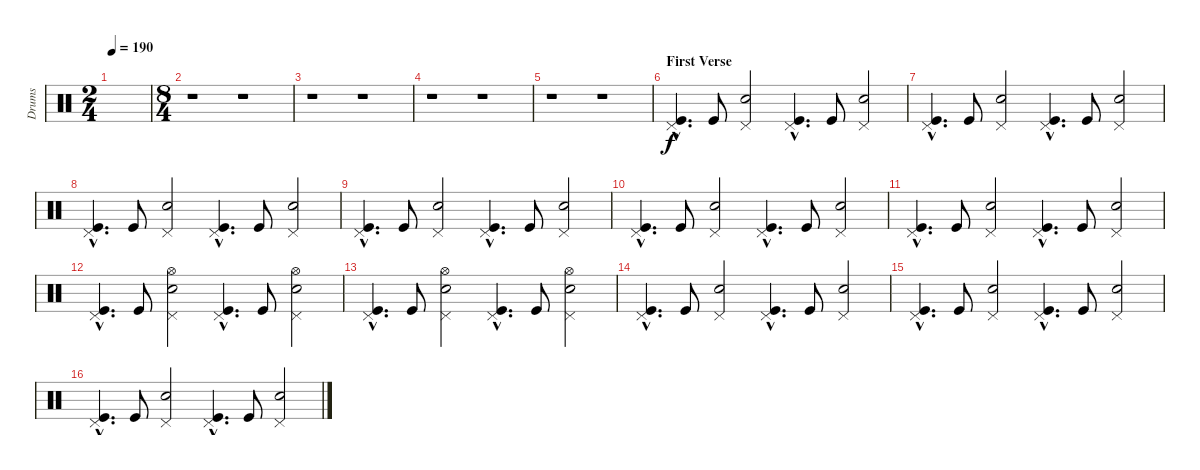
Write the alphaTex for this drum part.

\track ("Drums" "Drums") {instrument percussion}
\staff {score}
\articulation defaults
\ts (2 4)
\tempo 190
\clef neutral
\ks c
|
\ts (8 4)
r.1 r.1 |
r.1 r.1 |
r.1 r.1 |
r.1 r.1 |
\section ("" "First Verse")
("Pedal Hi-Hat (hit)"{hac} "Kick (hit)"{hac}).4{d} "Kick (hit)".8 ("Pedal Hi-Hat (hit)" "Electric Snare (hit)").2 ("Pedal Hi-Hat (hit)"{hac} "Kick (hit)"{hac}).4{d} "Kick (hit)".8 ("Pedal Hi-Hat (hit)" "Electric Snare (hit)").2 |
("Pedal Hi-Hat (hit)"{hac} "Kick (hit)"{hac}).4{d} "Kick (hit)".8 ("Pedal Hi-Hat (hit)" "Electric Snare (hit)").2 ("Pedal Hi-Hat (hit)"{hac} "Kick (hit)"{hac}).4{d} "Kick (hit)".8 ("Pedal Hi-Hat (hit)" "Electric Snare (hit)").2 |
("Pedal Hi-Hat (hit)"{hac} "Kick (hit)"{hac}).4{d} "Kick (hit)".8 ("Pedal Hi-Hat (hit)" "Electric Snare (hit)").2 ("Pedal Hi-Hat (hit)"{hac} "Kick (hit)"{hac}).4{d} "Kick (hit)".8 ("Pedal Hi-Hat (hit)" "Electric Snare (hit)").2 |
("Pedal Hi-Hat (hit)"{hac} "Kick (hit)"{hac}).4{d} "Kick (hit)".8 ("Pedal Hi-Hat (hit)" "Electric Snare (hit)").2 ("Pedal Hi-Hat (hit)"{hac} "Kick (hit)"{hac}).4{d} "Kick (hit)".8 ("Pedal Hi-Hat (hit)" "Electric Snare (hit)").2 |
("Pedal Hi-Hat (hit)"{hac} "Kick (hit)"{hac}).4{d} "Kick (hit)".8 ("Pedal Hi-Hat (hit)" "Electric Snare (hit)").2 ("Pedal Hi-Hat (hit)"{hac} "Kick (hit)"{hac}).4{d} "Kick (hit)".8 ("Pedal Hi-Hat (hit)" "Electric Snare (hit)").2 |
("Pedal Hi-Hat (hit)"{hac} "Kick (hit)"{hac}).4{d} "Kick (hit)".8 ("Pedal Hi-Hat (hit)" "Electric Snare (hit)").2 ("Pedal Hi-Hat (hit)"{hac} "Kick (hit)"{hac}).4{d} "Kick (hit)".8 ("Pedal Hi-Hat (hit)" "Electric Snare (hit)").2 |
("Pedal Hi-Hat (hit)"{hac} "Kick (hit)"{hac}).4{d} "Kick (hit)".8 ("Pedal Hi-Hat (hit)" "Electric Snare (hit)" "Hi-Hat (open)").2 ("Pedal Hi-Hat (hit)"{hac} "Kick (hit)"{hac}).4{d} "Kick (hit)".8 ("Pedal Hi-Hat (hit)" "Electric Snare (hit)" "Hi-Hat (open)").2 |
("Pedal Hi-Hat (hit)"{hac} "Kick (hit)"{hac}).4{d} "Kick (hit)".8 ("Pedal Hi-Hat (hit)" "Electric Snare (hit)" "Hi-Hat (open)").2 ("Pedal Hi-Hat (hit)"{hac} "Kick (hit)"{hac}).4{d} "Kick (hit)".8 ("Pedal Hi-Hat (hit)" "Electric Snare (hit)" "Hi-Hat (open)").2 |
("Pedal Hi-Hat (hit)"{hac} "Kick (hit)"{hac}).4{d} "Kick (hit)".8 ("Pedal Hi-Hat (hit)" "Electric Snare (hit)").2 ("Pedal Hi-Hat (hit)"{hac} "Kick (hit)"{hac}).4{d} "Kick (hit)".8 ("Pedal Hi-Hat (hit)" "Electric Snare (hit)").2 |
("Pedal Hi-Hat (hit)"{hac} "Kick (hit)"{hac}).4{d} "Kick (hit)".8 ("Pedal Hi-Hat (hit)" "Electric Snare (hit)").2 ("Pedal Hi-Hat (hit)"{hac} "Kick (hit)"{hac}).4{d} "Kick (hit)".8 ("Pedal Hi-Hat (hit)" "Electric Snare (hit)").2 |
("Pedal Hi-Hat (hit)"{hac} "Kick (hit)"{hac}).4{d} "Kick (hit)".8 ("Pedal Hi-Hat (hit)" "Electric Snare (hit)").2 ("Pedal Hi-Hat (hit)"{hac} "Kick (hit)"{hac}).4{d} "Kick (hit)".8 ("Pedal Hi-Hat (hit)" "Electric Snare (hit)").2
